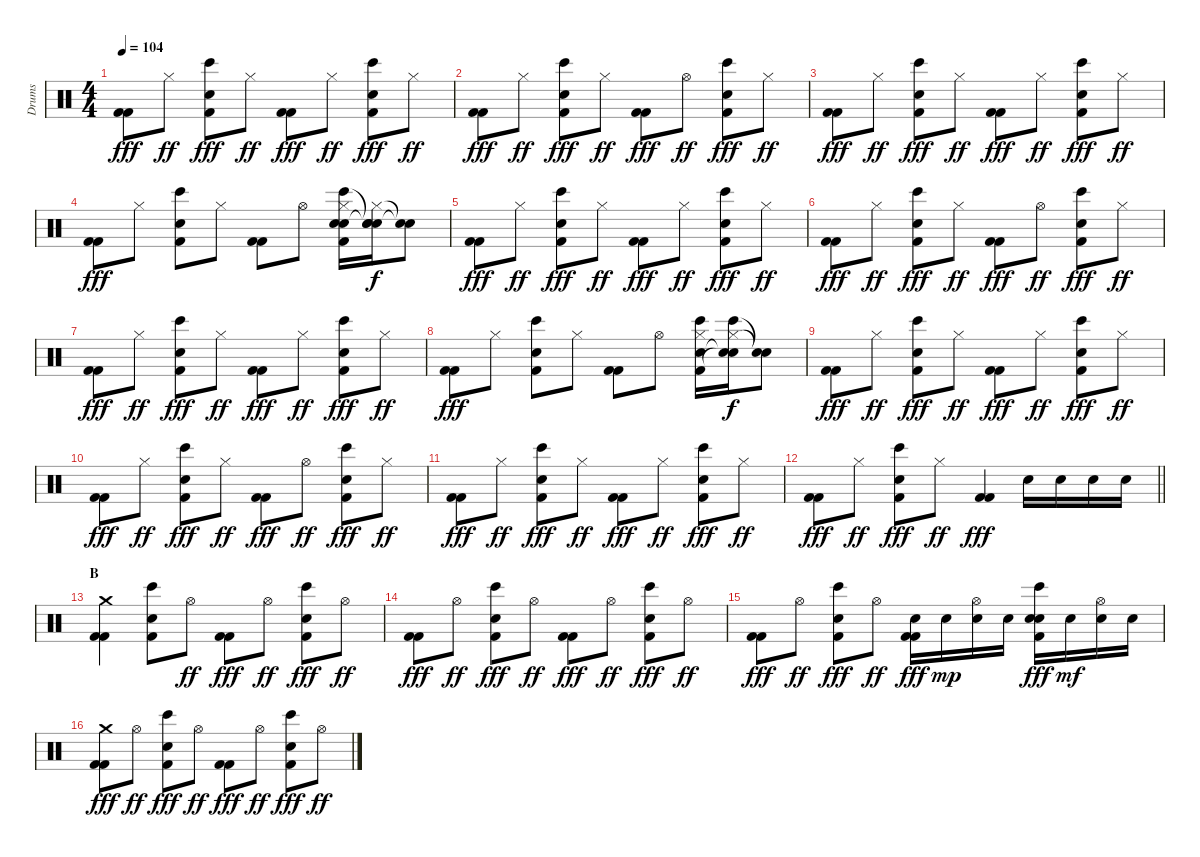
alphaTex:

\track ("Drums" "Drums") {instrument percussion}
\staff {score}
\articulation defaults
\ts (4 4)
\tempo 104
\clef neutral
\ks c
("Kick (hit) 2" "Kick (hit) 2").8{dy fff} "Hi-Hat (closed)".8{dy ff} ("Bongo High (hit)" "Snare (hit) 2" "Kick (hit) 2").8{dy fff} "Hi-Hat (closed)".8{dy ff} ("Kick (hit) 2" "Kick (hit) 2").8{dy fff} "Hi-Hat (closed)".8{dy ff} ("Bongo High (hit)" "Snare (hit) 2" "Kick (hit) 2").8{dy fff} "Hi-Hat (closed)".8{dy ff} |
("Kick (hit) 2" "Kick (hit) 2").8{dy fff} "Hi-Hat (closed)".8{dy ff} ("Bongo High (hit)" "Snare (hit) 2" "Kick (hit) 2").8{dy fff} "Hi-Hat (closed)".8{dy ff} ("Kick (hit) 2" "Kick (hit) 2").8{dy fff} "Hi-Hat (open)".8{dy ff} ("Bongo High (hit)" "Snare (hit) 2" "Kick (hit) 2").8{dy fff} "Hi-Hat (closed)".8{dy ff} |
("Kick (hit) 2" "Kick (hit) 2").8{dy fff} "Hi-Hat (closed)".8{dy ff} ("Bongo High (hit)" "Snare (hit) 2" "Kick (hit) 2").8{dy fff} "Hi-Hat (closed)".8{dy ff} ("Kick (hit) 2" "Kick (hit) 2").8{dy fff} "Hi-Hat (closed)".8{dy ff} ("Bongo High (hit)" "Snare (hit) 2" "Kick (hit) 2").8{dy fff} "Hi-Hat (closed)".8{dy ff} |
("Kick (hit) 2" "Kick (hit) 2").8{dy fff} "Hi-Hat (closed)".8 ("Bongo High (hit)" "Snare (hit) 2" "Kick (hit) 2").8 "Hi-Hat (closed)".8 ("Kick (hit) 2" "Kick (hit) 2").8 "Hi-Hat (open)".8 ("Hi-Hat (closed)" "Hand Clap (hit)" "Bongo High (hit)" "Snare (hit) 2" "Kick (hit) 2").16 ("Hi-Hat (closed)" "Hand Clap (hit)" "Snare (hit)"{t} "Snare (hit)"{t}).16{dy f} ("Snare (hit)"{t} "Snare (hit)"{t}).8 |
("Kick (hit) 2" "Kick (hit) 2").8{dy fff} "Hi-Hat (closed)".8{dy ff} ("Bongo High (hit)" "Snare (hit) 2" "Kick (hit) 2").8{dy fff} "Hi-Hat (closed)".8{dy ff} ("Kick (hit) 2" "Kick (hit) 2").8{dy fff} "Hi-Hat (closed)".8{dy ff} ("Bongo High (hit)" "Snare (hit) 2" "Kick (hit) 2").8{dy fff} "Hi-Hat (closed)".8{dy ff} |
("Kick (hit) 2" "Kick (hit) 2").8{dy fff} "Hi-Hat (closed)".8{dy ff} ("Bongo High (hit)" "Snare (hit) 2" "Kick (hit) 2").8{dy fff} "Hi-Hat (closed)".8{dy ff} ("Kick (hit) 2" "Kick (hit) 2").8{dy fff} "Hi-Hat (open)".8{dy ff} ("Bongo High (hit)" "Snare (hit) 2" "Kick (hit) 2").8{dy fff} "Hi-Hat (closed)".8{dy ff} |
("Kick (hit) 2" "Kick (hit) 2").8{dy fff} "Hi-Hat (closed)".8{dy ff} ("Bongo High (hit)" "Snare (hit) 2" "Kick (hit) 2").8{dy fff} "Hi-Hat (closed)".8{dy ff} ("Kick (hit) 2" "Kick (hit) 2").8{dy fff} "Hi-Hat (closed)".8{dy ff} ("Bongo High (hit)" "Snare (hit) 2" "Kick (hit) 2").8{dy fff} "Hi-Hat (closed)".8{dy ff} |
("Kick (hit) 2" "Kick (hit) 2").8{dy fff} "Hi-Hat (closed)".8 ("Bongo High (hit)" "Snare (hit) 2" "Kick (hit) 2").8 "Hi-Hat (closed)".8 ("Kick (hit) 2" "Kick (hit) 2").8 "Hi-Hat (open)".8 ("Hi-Hat (closed)" "Bongo High (hit)" "Snare (hit) 2" "Kick (hit) 2").16 ("Hi-Hat (closed)" "Bongo High (hit)" "Snare (hit)"{t} "Snare (hit)"{t}).16{dy f} ("Snare (hit)"{t} "Snare (hit)"{t}).8 |
("Kick (hit) 2" "Kick (hit) 2").8{dy fff} "Hi-Hat (closed)".8{dy ff} ("Bongo High (hit)" "Snare (hit) 2" "Kick (hit) 2").8{dy fff} "Hi-Hat (closed)".8{dy ff} ("Kick (hit) 2" "Kick (hit) 2").8{dy fff} "Hi-Hat (closed)".8{dy ff} ("Bongo High (hit)" "Snare (hit) 2" "Kick (hit) 2").8{dy fff} "Hi-Hat (closed)".8{dy ff} |
("Kick (hit) 2" "Kick (hit) 2").8{dy fff} "Hi-Hat (closed)".8{dy ff} ("Bongo High (hit)" "Snare (hit) 2" "Kick (hit) 2").8{dy fff} "Hi-Hat (closed)".8{dy ff} ("Kick (hit) 2" "Kick (hit) 2").8{dy fff} "Hi-Hat (open)".8{dy ff} ("Bongo High (hit)" "Snare (hit) 2" "Kick (hit) 2").8{dy fff} "Hi-Hat (closed)".8{dy ff} |
("Kick (hit) 2" "Kick (hit) 2").8{dy fff} "Hi-Hat (closed)".8{dy ff} ("Bongo High (hit)" "Snare (hit) 2" "Kick (hit) 2").8{dy fff} "Hi-Hat (closed)".8{dy ff} ("Kick (hit) 2" "Kick (hit) 2").8{dy fff} "Hi-Hat (closed)".8{dy ff} ("Bongo High (hit)" "Snare (hit) 2" "Kick (hit) 2").8{dy fff} "Hi-Hat (closed)".8{dy ff} |
\barLineRight lightlight
("Kick (hit) 2" "Kick (hit) 2").8{dy fff} "Hi-Hat (closed)".8{dy ff} ("Bongo High (hit)" "Snare (hit) 2" "Kick (hit) 2").8{dy fff} "Hi-Hat (closed)".8{dy ff} ("Kick (hit) 2" "Kick (hit) 2").4{dy fff} "Hand Clap (hit)".16 "Hand Clap (hit)".16 "Hand Clap (hit)".16 "Hand Clap (hit)".16 |
\section ("" "B")
("Crash medium (hit)" "Kick (hit) 2" "Kick (hit) 2").4 ("Bongo High (hit)" "Snare (hit) 2" "Kick (hit) 2").8 "Hi-Hat (open)".8{dy ff} ("Kick (hit) 2" "Kick (hit) 2").8{dy fff} "Hi-Hat (open)".8{dy ff} ("Bongo High (hit)" "Snare (hit) 2" "Kick (hit) 2").8{dy fff} "Hi-Hat (open)".8{dy ff} |
("Kick (hit) 2" "Kick (hit) 2").8{dy fff} "Hi-Hat (open)".8{dy ff} ("Bongo High (hit)" "Snare (hit) 2" "Kick (hit) 2").8{dy fff} "Hi-Hat (open)".8{dy ff} ("Kick (hit) 2" "Kick (hit) 2").8{dy fff} "Hi-Hat (open)".8{dy ff} ("Bongo High (hit)" "Snare (hit) 2" "Kick (hit) 2").8{dy fff} "Hi-Hat (open)".8{dy ff} |
("Kick (hit) 2" "Kick (hit) 2").8{dy fff} "Hi-Hat (open)".8{dy ff} ("Bongo High (hit)" "Snare (hit) 2" "Kick (hit) 2").8{dy fff} "Hi-Hat (open)".8{dy ff} ("Electric Snare (hit)" "Kick (hit) 2" "Kick (hit) 2").16{dy fff} "Electric Snare (hit)".16{dy mp} ("Hi-Hat (open)" "Electric Snare (hit)").16 "Electric Snare (hit)".16 ("Electric Snare (hit)" "Bongo High (hit)" "Snare (hit) 2" "Kick (hit) 2").16{dy fff} "Electric Snare (hit)".16{dy mf} ("Hi-Hat (open)" "Electric Snare (hit)").16 "Electric Snare (hit)".16 |
("Crash medium (hit)" "Kick (hit) 2" "Kick (hit) 2").8{dy fff} "Hi-Hat (open)".8{dy ff} ("Bongo High (hit)" "Snare (hit) 2" "Kick (hit) 2").8{dy fff} "Hi-Hat (open)".8{dy ff} ("Kick (hit) 2" "Kick (hit) 2").8{dy fff} "Hi-Hat (open)".8{dy ff} ("Bongo High (hit)" "Snare (hit) 2" "Kick (hit) 2").8{dy fff} "Hi-Hat (open)".8{dy ff}
